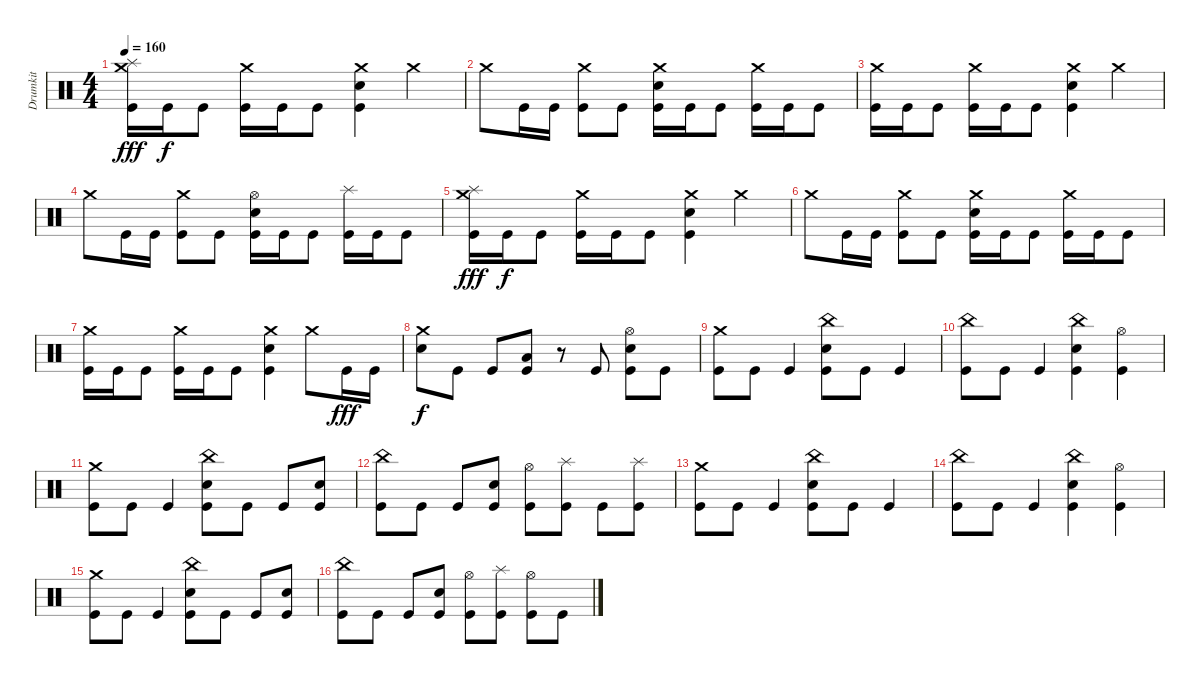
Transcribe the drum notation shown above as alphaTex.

\track ("Drumkit" "Drumkit") {instrument percussion}
\staff {score}
\articulation defaults
\ts (4 4)
\tempo 160
\clef neutral
\ks c
("Splash (hit)" "Crash medium (hit)" "Kick (hit)").16{dy fff} "Kick (hit)".16{dy f} "Kick (hit)".8 ("Crash medium (hit)" "Kick (hit)").16 "Kick (hit)".16 "Kick (hit)".8 ("Crash medium (hit)" "Snare (hit) 2" "Kick (hit)").4 "Crash medium (hit)".4 |
"Crash medium (hit)".8 "Kick (hit)".16 "Kick (hit)".16 ("Crash medium (hit)" "Kick (hit)").8 "Kick (hit)".8 ("Crash medium (hit)" "Snare (hit) 2" "Kick (hit)").16 "Kick (hit)".16 "Kick (hit)".8 ("Crash medium (hit)" "Kick (hit)").16 "Kick (hit)".16 "Kick (hit)".8 |
("Crash medium (hit)" "Kick (hit)").16 "Kick (hit)".16 "Kick (hit)".8 ("Crash medium (hit)" "Kick (hit)").16 "Kick (hit)".16 "Kick (hit)".8 ("Crash medium (hit)" "Snare (hit) 2" "Kick (hit)").4 "Crash medium (hit)".4 |
"Crash medium (hit)".8 "Kick (hit)".16 "Kick (hit)".16 ("Crash medium (hit)" "Kick (hit)").8 "Kick (hit)".8 ("Hi-Hat (open)" "Snare (hit) 2" "Kick (hit)").16 "Kick (hit)".16 "Kick (hit)".8 ("Splash (hit)" "Kick (hit)").16 "Kick (hit)".16 "Kick (hit)".8 |
("Splash (hit)" "Crash medium (hit)" "Kick (hit)").16{dy fff} "Kick (hit)".16{dy f} "Kick (hit)".8 ("Crash medium (hit)" "Kick (hit)").16 "Kick (hit)".16 "Kick (hit)".8 ("Crash medium (hit)" "Snare (hit) 2" "Kick (hit)").4 "Crash medium (hit)".4 |
"Crash medium (hit)".8 "Kick (hit)".16 "Kick (hit)".16 ("Crash medium (hit)" "Kick (hit)").8 "Kick (hit)".8 ("Crash medium (hit)" "Snare (hit) 2" "Kick (hit)").16 "Kick (hit)".16 "Kick (hit)".8 ("Crash medium (hit)" "Kick (hit)").16 "Kick (hit)".16 "Kick (hit)".8 |
("Crash medium (hit)" "Kick (hit)").16 "Kick (hit)".16 "Kick (hit)".8 ("Crash medium (hit)" "Kick (hit)").16 "Kick (hit)".16 "Kick (hit)".8 ("Crash medium (hit)" "Snare (hit) 2" "Kick (hit)").4 "Crash medium (hit)".8 "Kick (hit)".16{dy fff} "Kick (hit)".16 |
("Crash medium (hit)" "Snare (hit) 2").8{dy f} "Kick (hit)".8 "Kick (hit)".8 ("Low Tom (hit)" "Kick (hit)").8 r.8 "Kick (hit)".8 ("Hi-Hat (open)" "Snare (hit) 2" "Kick (hit)").8 "Kick (hit)".8 |
("Crash medium (hit)" "Kick (hit)").8 "Kick (hit)".8 "Kick (hit)".4 ("China (hit)" "Snare (hit) 2" "Kick (hit)").8 "Kick (hit)".8 "Kick (hit)".4 |
("China (hit)" "Kick (hit)").8 "Kick (hit)".8 "Kick (hit)".4 ("China (hit)" "Snare (hit) 2" "Kick (hit)").4 ("Hi-Hat (open)" "Kick (hit)").4 |
("Crash medium (hit)" "Kick (hit)").8 "Kick (hit)".8 "Kick (hit)".4 ("China (hit)" "Snare (hit) 2" "Kick (hit)").8 "Kick (hit)".8 "Kick (hit)".8 ("Snare (hit) 2" "Kick (hit)").8 |
("China (hit)" "Kick (hit)").8 "Kick (hit)".8 "Kick (hit)".8 ("Snare (hit) 2" "Kick (hit)").8 ("Hi-Hat (open)" "Kick (hit)").8 ("Splash (hit)" "Kick (hit)").8 "Kick (hit)".8 ("Splash (hit)" "Kick (hit)").8 |
("Crash medium (hit)" "Kick (hit)").8 "Kick (hit)".8 "Kick (hit)".4 ("China (hit)" "Snare (hit) 2" "Kick (hit)").8 "Kick (hit)".8 "Kick (hit)".4 |
("China (hit)" "Kick (hit)").8 "Kick (hit)".8 "Kick (hit)".4 ("China (hit)" "Snare (hit) 2" "Kick (hit)").4 ("Hi-Hat (open)" "Kick (hit)").4 |
("Crash medium (hit)" "Kick (hit)").8 "Kick (hit)".8 "Kick (hit)".4 ("China (hit)" "Snare (hit) 2" "Kick (hit)").8 "Kick (hit)".8 "Kick (hit)".8 ("Snare (hit) 2" "Kick (hit)").8 |
("China (hit)" "Kick (hit)").8 "Kick (hit)".8 "Kick (hit)".8 ("Snare (hit) 2" "Kick (hit)").8 ("Hi-Hat (open)" "Kick (hit)").8 ("Splash (hit)" "Kick (hit)").8 ("Hi-Hat (open)" "Kick (hit)").8 "Kick (hit)".8
